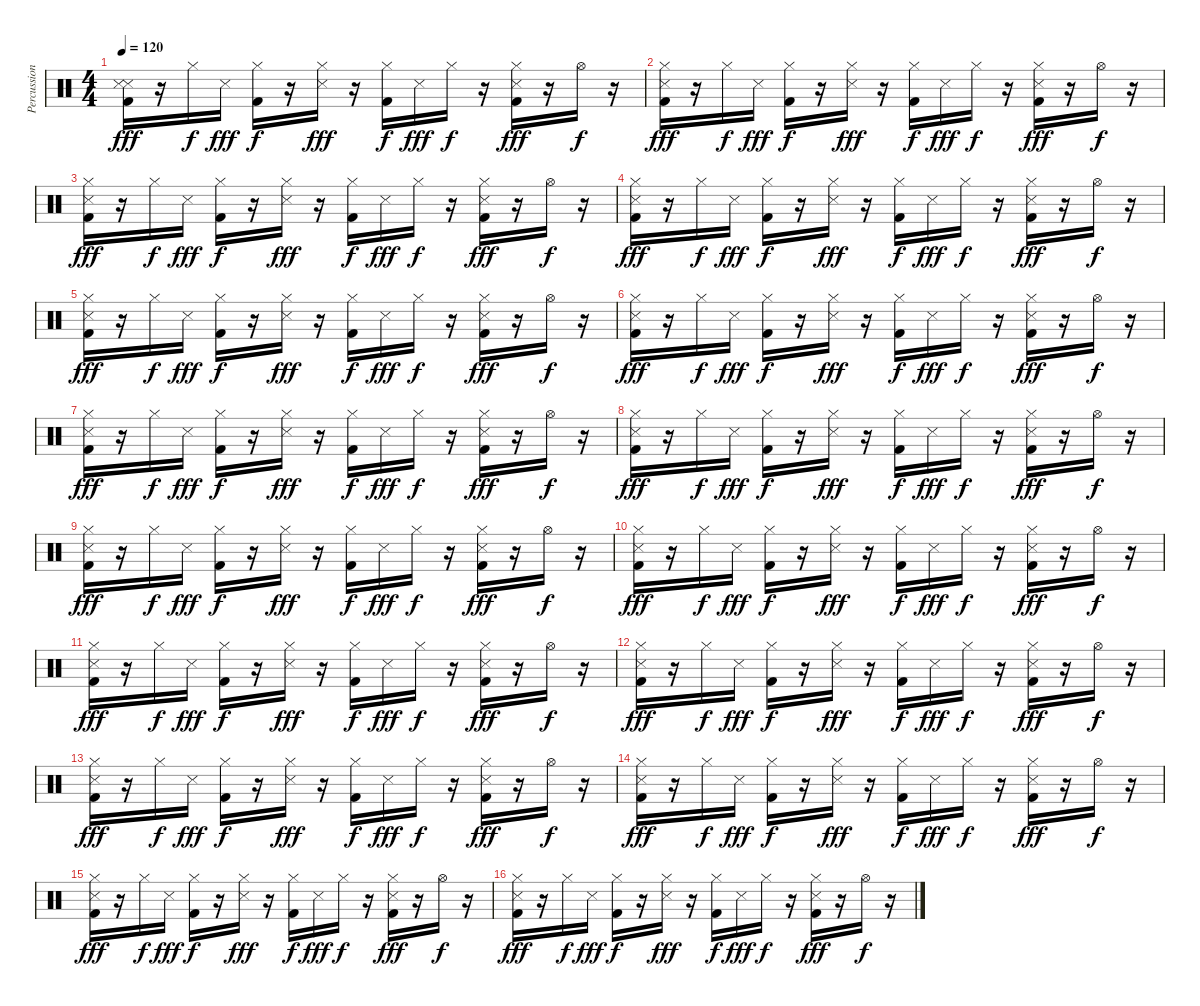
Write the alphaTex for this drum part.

\track ("Percussions" "Percussion") {instrument percussion}
\staff {score}
\articulation defaults
\ts (4 4)
\tempo 120
\clef neutral
\ks c
("Snare (side stick) 3" "Snare (side stick) 3" "Kick (hit) 2").16{dy fff} r.16 "Hi-Hat (closed)".16{dy f} "Snare (side stick) 3".16{dy fff} ("Hi-Hat (closed)" "Kick (hit) 2").16{dy f} r.16 ("Hi-Hat (closed)" "Snare (side stick) 3").16{dy fff} r.16 ("Hi-Hat (closed)" "Kick (hit) 2").16{dy f} "Snare (side stick) 3".16{dy fff} "Hi-Hat (closed)".16{dy f} r.16 ("Hi-Hat (closed)" "Snare (side stick) 3" "Kick (hit) 2").16{dy fff} r.16 "Hi-Hat (open)".16{dy f} r.16 |
("Hi-Hat (closed)" "Snare (side stick) 3" "Kick (hit) 2").16{dy fff} r.16 "Hi-Hat (closed)".16{dy f} "Snare (side stick) 3".16{dy fff} ("Hi-Hat (closed)" "Kick (hit) 2").16{dy f} r.16 ("Hi-Hat (closed)" "Snare (side stick) 3").16{dy fff} r.16 ("Hi-Hat (closed)" "Kick (hit) 2").16{dy f} "Snare (side stick) 3".16{dy fff} "Hi-Hat (closed)".16{dy f} r.16 ("Hi-Hat (closed)" "Snare (side stick) 3" "Kick (hit) 2").16{dy fff} r.16 "Hi-Hat (open)".16{dy f} r.16 |
("Hi-Hat (closed)" "Snare (side stick) 3" "Kick (hit) 2").16{dy fff} r.16 "Hi-Hat (closed)".16{dy f} "Snare (side stick) 3".16{dy fff} ("Hi-Hat (closed)" "Kick (hit) 2").16{dy f} r.16 ("Hi-Hat (closed)" "Snare (side stick) 3").16{dy fff} r.16 ("Hi-Hat (closed)" "Kick (hit) 2").16{dy f} "Snare (side stick) 3".16{dy fff} "Hi-Hat (closed)".16{dy f} r.16 ("Hi-Hat (closed)" "Snare (side stick) 3" "Kick (hit) 2").16{dy fff} r.16 "Hi-Hat (open)".16{dy f} r.16 |
("Hi-Hat (closed)" "Snare (side stick) 3" "Kick (hit) 2").16{dy fff} r.16 "Hi-Hat (closed)".16{dy f} "Snare (side stick) 3".16{dy fff} ("Hi-Hat (closed)" "Kick (hit) 2").16{dy f} r.16 ("Hi-Hat (closed)" "Snare (side stick) 3").16{dy fff} r.16 ("Hi-Hat (closed)" "Kick (hit) 2").16{dy f} "Snare (side stick) 3".16{dy fff} "Hi-Hat (closed)".16{dy f} r.16 ("Hi-Hat (closed)" "Snare (side stick) 3" "Kick (hit) 2").16{dy fff} r.16 "Hi-Hat (open)".16{dy f} r.16 |
("Hi-Hat (closed)" "Snare (side stick) 3" "Kick (hit) 2").16{dy fff} r.16 "Hi-Hat (closed)".16{dy f} "Snare (side stick) 3".16{dy fff} ("Hi-Hat (closed)" "Kick (hit) 2").16{dy f} r.16 ("Hi-Hat (closed)" "Snare (side stick) 3").16{dy fff} r.16 ("Hi-Hat (closed)" "Kick (hit) 2").16{dy f} "Snare (side stick) 3".16{dy fff} "Hi-Hat (closed)".16{dy f} r.16 ("Hi-Hat (closed)" "Snare (side stick) 3" "Kick (hit) 2").16{dy fff} r.16 "Hi-Hat (open)".16{dy f} r.16 |
("Hi-Hat (closed)" "Snare (side stick) 3" "Kick (hit) 2").16{dy fff} r.16 "Hi-Hat (closed)".16{dy f} "Snare (side stick) 3".16{dy fff} ("Hi-Hat (closed)" "Kick (hit) 2").16{dy f} r.16 ("Hi-Hat (closed)" "Snare (side stick) 3").16{dy fff} r.16 ("Hi-Hat (closed)" "Kick (hit) 2").16{dy f} "Snare (side stick) 3".16{dy fff} "Hi-Hat (closed)".16{dy f} r.16 ("Hi-Hat (closed)" "Snare (side stick) 3" "Kick (hit) 2").16{dy fff} r.16 "Hi-Hat (open)".16{dy f} r.16 |
("Hi-Hat (closed)" "Snare (side stick) 3" "Kick (hit) 2").16{dy fff} r.16 "Hi-Hat (closed)".16{dy f} "Snare (side stick) 3".16{dy fff} ("Hi-Hat (closed)" "Kick (hit) 2").16{dy f} r.16 ("Hi-Hat (closed)" "Snare (side stick) 3").16{dy fff} r.16 ("Hi-Hat (closed)" "Kick (hit) 2").16{dy f} "Snare (side stick) 3".16{dy fff} "Hi-Hat (closed)".16{dy f} r.16 ("Hi-Hat (closed)" "Snare (side stick) 3" "Kick (hit) 2").16{dy fff} r.16 "Hi-Hat (open)".16{dy f} r.16 |
("Hi-Hat (closed)" "Snare (side stick) 3" "Kick (hit) 2").16{dy fff} r.16 "Hi-Hat (closed)".16{dy f} "Snare (side stick) 3".16{dy fff} ("Hi-Hat (closed)" "Kick (hit) 2").16{dy f} r.16 ("Hi-Hat (closed)" "Snare (side stick) 3").16{dy fff} r.16 ("Hi-Hat (closed)" "Kick (hit) 2").16{dy f} "Snare (side stick) 3".16{dy fff} "Hi-Hat (closed)".16{dy f} r.16 ("Hi-Hat (closed)" "Snare (side stick) 3" "Kick (hit) 2").16{dy fff} r.16 "Hi-Hat (open)".16{dy f} r.16 |
("Hi-Hat (closed)" "Snare (side stick) 3" "Kick (hit) 2").16{dy fff} r.16 "Hi-Hat (closed)".16{dy f} "Snare (side stick) 3".16{dy fff} ("Hi-Hat (closed)" "Kick (hit) 2").16{dy f} r.16 ("Hi-Hat (closed)" "Snare (side stick) 3").16{dy fff} r.16 ("Hi-Hat (closed)" "Kick (hit) 2").16{dy f} "Snare (side stick) 3".16{dy fff} "Hi-Hat (closed)".16{dy f} r.16 ("Hi-Hat (closed)" "Snare (side stick) 3" "Kick (hit) 2").16{dy fff} r.16 "Hi-Hat (open)".16{dy f} r.16 |
("Hi-Hat (closed)" "Snare (side stick) 3" "Kick (hit) 2").16{dy fff} r.16 "Hi-Hat (closed)".16{dy f} "Snare (side stick) 3".16{dy fff} ("Hi-Hat (closed)" "Kick (hit) 2").16{dy f} r.16 ("Hi-Hat (closed)" "Snare (side stick) 3").16{dy fff} r.16 ("Hi-Hat (closed)" "Kick (hit) 2").16{dy f} "Snare (side stick) 3".16{dy fff} "Hi-Hat (closed)".16{dy f} r.16 ("Hi-Hat (closed)" "Snare (side stick) 3" "Kick (hit) 2").16{dy fff} r.16 "Hi-Hat (open)".16{dy f} r.16 |
("Hi-Hat (closed)" "Snare (side stick) 3" "Kick (hit) 2").16{dy fff} r.16 "Hi-Hat (closed)".16{dy f} "Snare (side stick) 3".16{dy fff} ("Hi-Hat (closed)" "Kick (hit) 2").16{dy f} r.16 ("Hi-Hat (closed)" "Snare (side stick) 3").16{dy fff} r.16 ("Hi-Hat (closed)" "Kick (hit) 2").16{dy f} "Snare (side stick) 3".16{dy fff} "Hi-Hat (closed)".16{dy f} r.16 ("Hi-Hat (closed)" "Snare (side stick) 3" "Kick (hit) 2").16{dy fff} r.16 "Hi-Hat (open)".16{dy f} r.16 |
("Hi-Hat (closed)" "Snare (side stick) 3" "Kick (hit) 2").16{dy fff} r.16 "Hi-Hat (closed)".16{dy f} "Snare (side stick) 3".16{dy fff} ("Hi-Hat (closed)" "Kick (hit) 2").16{dy f} r.16 ("Hi-Hat (closed)" "Snare (side stick) 3").16{dy fff} r.16 ("Hi-Hat (closed)" "Kick (hit) 2").16{dy f} "Snare (side stick) 3".16{dy fff} "Hi-Hat (closed)".16{dy f} r.16 ("Hi-Hat (closed)" "Snare (side stick) 3" "Kick (hit) 2").16{dy fff} r.16 "Hi-Hat (open)".16{dy f} r.16 |
("Hi-Hat (closed)" "Snare (side stick) 3" "Kick (hit) 2").16{dy fff} r.16 "Hi-Hat (closed)".16{dy f} "Snare (side stick) 3".16{dy fff} ("Hi-Hat (closed)" "Kick (hit) 2").16{dy f} r.16 ("Hi-Hat (closed)" "Snare (side stick) 3").16{dy fff} r.16 ("Hi-Hat (closed)" "Kick (hit) 2").16{dy f} "Snare (side stick) 3".16{dy fff} "Hi-Hat (closed)".16{dy f} r.16 ("Hi-Hat (closed)" "Snare (side stick) 3" "Kick (hit) 2").16{dy fff} r.16 "Hi-Hat (open)".16{dy f} r.16 |
("Hi-Hat (closed)" "Snare (side stick) 3" "Kick (hit) 2").16{dy fff} r.16 "Hi-Hat (closed)".16{dy f} "Snare (side stick) 3".16{dy fff} ("Hi-Hat (closed)" "Kick (hit) 2").16{dy f} r.16 ("Hi-Hat (closed)" "Snare (side stick) 3").16{dy fff} r.16 ("Hi-Hat (closed)" "Kick (hit) 2").16{dy f} "Snare (side stick) 3".16{dy fff} "Hi-Hat (closed)".16{dy f} r.16 ("Hi-Hat (closed)" "Snare (side stick) 3" "Kick (hit) 2").16{dy fff} r.16 "Hi-Hat (open)".16{dy f} r.16 |
("Hi-Hat (closed)" "Snare (side stick) 3" "Kick (hit) 2").16{dy fff} r.16 "Hi-Hat (closed)".16{dy f} "Snare (side stick) 3".16{dy fff} ("Hi-Hat (closed)" "Kick (hit) 2").16{dy f} r.16 ("Hi-Hat (closed)" "Snare (side stick) 3").16{dy fff} r.16 ("Hi-Hat (closed)" "Kick (hit) 2").16{dy f} "Snare (side stick) 3".16{dy fff} "Hi-Hat (closed)".16{dy f} r.16 ("Hi-Hat (closed)" "Snare (side stick) 3" "Kick (hit) 2").16{dy fff} r.16 "Hi-Hat (open)".16{dy f} r.16 |
("Hi-Hat (closed)" "Snare (side stick) 3" "Kick (hit) 2").16{dy fff} r.16 "Hi-Hat (closed)".16{dy f} "Snare (side stick) 3".16{dy fff} ("Hi-Hat (closed)" "Kick (hit) 2").16{dy f} r.16 ("Hi-Hat (closed)" "Snare (side stick) 3").16{dy fff} r.16 ("Hi-Hat (closed)" "Kick (hit) 2").16{dy f} "Snare (side stick) 3".16{dy fff} "Hi-Hat (closed)".16{dy f} r.16 ("Hi-Hat (closed)" "Snare (side stick) 3" "Kick (hit) 2").16{dy fff} r.16 "Hi-Hat (open)".16{dy f} r.16
